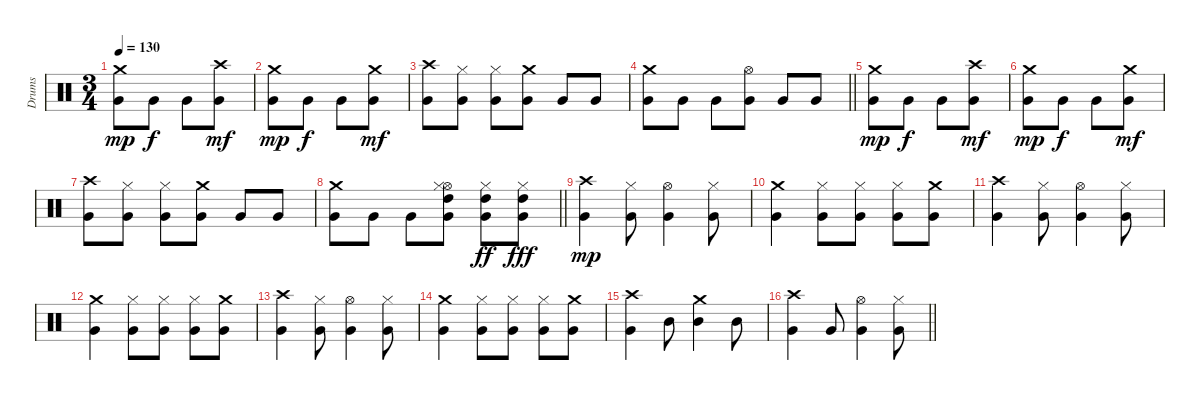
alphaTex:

\track ("Drums" "Drums") {instrument percussion}
\staff {score}
\articulation defaults
\ts (3 4)
\section ("" "")
\tempo 130
\clef neutral
\ks c
("Crash medium (hit)" "Very Low Tom (hit)").8{dy mp} "Very Low Tom (hit)".8{dy f} "Very Low Tom (hit)".8 ("Crash high (hit)" "Very Low Tom (hit)").8{dy mf} |
("Crash medium (hit)" "Very Low Tom (hit)").8{dy mp} "Very Low Tom (hit)".8{dy f} "Very Low Tom (hit)".8 ("Crash medium (hit)" "Very Low Tom (hit)").8{dy mf} |
("Crash high (hit)" "Very Low Tom (hit)").8 ("Hi-Hat (closed)" "Very Low Tom (hit)").8 ("Hi-Hat (closed)" "Very Low Tom (hit)").8 ("Crash medium (hit)" "Very Low Tom (hit)").8 "Very Low Tom (hit)".8 "Very Low Tom (hit)".8 |
\barLineRight lightlight
("Crash medium (hit)" "Very Low Tom (hit)").8 "Very Low Tom (hit)".8 "Very Low Tom (hit)".8 ("Hi-Hat (open)" "Very Low Tom (hit)").8 "Very Low Tom (hit)".8 "Very Low Tom (hit)".8 |
("Crash medium (hit)" "Very Low Tom (hit)").8{dy mp} "Very Low Tom (hit)".8{dy f} "Very Low Tom (hit)".8 ("Crash high (hit)" "Very Low Tom (hit)").8{dy mf} |
("Crash medium (hit)" "Very Low Tom (hit)").8{dy mp} "Very Low Tom (hit)".8{dy f} "Very Low Tom (hit)".8 ("Crash medium (hit)" "Very Low Tom (hit)").8{dy mf} |
("Crash high (hit)" "Very Low Tom (hit)").8 ("Hi-Hat (closed)" "Very Low Tom (hit)").8 ("Hi-Hat (closed)" "Very Low Tom (hit)").8 ("Crash medium (hit)" "Very Low Tom (hit)").8 "Very Low Tom (hit)".8 "Very Low Tom (hit)".8 |
\barLineRight lightlight
("Crash medium (hit)" "Very Low Tom (hit)").8 "Very Low Tom (hit)".8 "Very Low Tom (hit)".8 ("Hi-Hat (open)" "Very Low Tom (hit)" "Hi-Hat (closed)" "High Tom (hit)").8 ("Very Low Tom (hit)" "Hi-Hat (closed)" "High Tom (hit)").8{dy ff} ("Very Low Tom (hit)" "Hi-Hat (closed)" "High Tom (hit)").8{dy fff} |
\section ("" "")
("Crash high (hit)" "Very Low Tom (hit)").4{dy mp} ("Hi-Hat (closed)" "Very Low Tom (hit)").8 ("Hi-Hat (open)" "Very Low Tom (hit)").4 ("Hi-Hat (closed)" "Very Low Tom (hit)").8 |
("Crash medium (hit)" "Very Low Tom (hit)").4 ("Hi-Hat (closed)" "Very Low Tom (hit)").8 ("Hi-Hat (closed)" "Very Low Tom (hit)").8 ("Hi-Hat (closed)" "Very Low Tom (hit)").8 ("Crash medium (hit)" "Very Low Tom (hit)").8 |
("Crash high (hit)" "Very Low Tom (hit)").4 ("Hi-Hat (closed)" "Very Low Tom (hit)").8 ("Hi-Hat (open)" "Very Low Tom (hit)").4 ("Hi-Hat (closed)" "Very Low Tom (hit)").8 |
("Crash medium (hit)" "Very Low Tom (hit)").4 ("Hi-Hat (closed)" "Very Low Tom (hit)").8 ("Hi-Hat (closed)" "Very Low Tom (hit)").8 ("Hi-Hat (closed)" "Very Low Tom (hit)").8 ("Crash medium (hit)" "Very Low Tom (hit)").8 |
("Crash high (hit)" "Very Low Tom (hit)").4 ("Hi-Hat (closed)" "Very Low Tom (hit)").8 ("Hi-Hat (open)" "Very Low Tom (hit)").4 ("Hi-Hat (closed)" "Very Low Tom (hit)").8 |
("Crash medium (hit)" "Very Low Tom (hit)").4 ("Hi-Hat (closed)" "Very Low Tom (hit)").8 ("Hi-Hat (closed)" "Very Low Tom (hit)").8 ("Hi-Hat (closed)" "Very Low Tom (hit)").8 ("Crash medium (hit)" "Very Low Tom (hit)").8 |
("Crash high (hit)" "Very Low Tom (hit)").4 "Mid Tom (hit)".8 ("Crash medium (hit)" "Mid Tom (hit)").4 "Mid Tom (hit)".8 |
\barLineRight lightlight
("Crash high (hit)" "Very Low Tom (hit)").4 "Very Low Tom (hit)".8 ("Hi-Hat (open)" "Very Low Tom (hit)").4 ("Hi-Hat (closed)" "Very Low Tom (hit)").8
